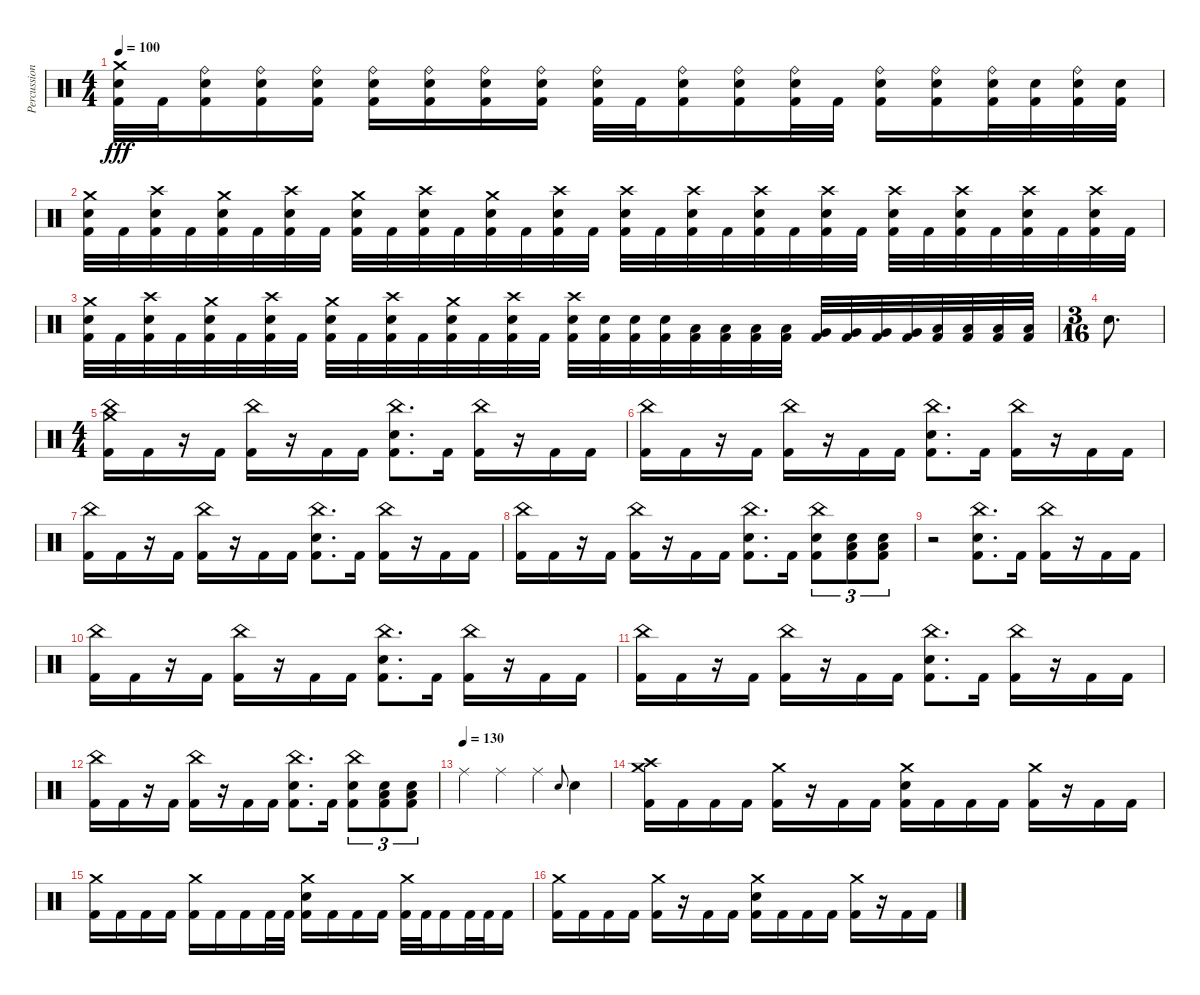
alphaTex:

\track ("Percussion" "Percussion") {instrument percussion}
\staff {score}
\articulation defaults
\ts (4 4)
\tempo 100
\clef neutral
\ks c
("Crash medium (hit)" "Electric Snare (hit)" "Kick (hit) 2").32{dy fff} "Kick (hit) 2".32 ("Ride (bell)" "Electric Snare (hit)" "Kick (hit) 2").16 ("Ride (bell)" "Electric Snare (hit)" "Kick (hit) 2").16 ("Ride (bell)" "Electric Snare (hit)" "Kick (hit) 2").16 ("Ride (bell)" "Electric Snare (hit)" "Kick (hit) 2").16 ("Ride (bell)" "Electric Snare (hit)" "Kick (hit) 2").16 ("Ride (bell)" "Electric Snare (hit)" "Kick (hit) 2").16 ("Ride (bell)" "Electric Snare (hit)" "Kick (hit) 2").16 ("Ride (bell)" "Electric Snare (hit)" "Kick (hit) 2").32 "Kick (hit) 2".32 ("Ride (bell)" "Electric Snare (hit)" "Kick (hit) 2").16 ("Ride (bell)" "Electric Snare (hit)" "Kick (hit) 2").16 ("Ride (bell)" "Electric Snare (hit)" "Kick (hit) 2").32 "Kick (hit) 2".32 ("Ride (bell)" "Electric Snare (hit)" "Kick (hit) 2").16 ("Ride (bell)" "Electric Snare (hit)" "Kick (hit) 2").16 ("Ride (bell)" "Electric Snare (hit)" "Kick (hit) 2").32 ("Electric Snare (hit)" "Kick (hit) 2").32 ("Ride (bell)" "Electric Snare (hit)" "Kick (hit) 2").32 ("Electric Snare (hit)" "Kick (hit) 2").32 |
("Crash medium (hit)" "Electric Snare (hit)" "Kick (hit) 2").32 "Kick (hit) 2".32 ("Crash high (hit)" "Electric Snare (hit)" "Kick (hit) 2").32 "Kick (hit) 2".32 ("Crash medium (hit)" "Electric Snare (hit)" "Kick (hit) 2").32 "Kick (hit) 2".32 ("Crash high (hit)" "Electric Snare (hit)" "Kick (hit) 2").32 "Kick (hit) 2".32 ("Crash medium (hit)" "Electric Snare (hit)" "Kick (hit) 2").32 "Kick (hit) 2".32 ("Crash high (hit)" "Electric Snare (hit)" "Kick (hit) 2").32 "Kick (hit) 2".32 ("Crash medium (hit)" "Electric Snare (hit)" "Kick (hit) 2").32 "Kick (hit) 2".32 ("Crash high (hit)" "Electric Snare (hit)" "Kick (hit) 2").32 "Kick (hit) 2".32 ("Crash high (hit)" "Electric Snare (hit)" "Kick (hit) 2").32 "Kick (hit) 2".32 ("Crash high (hit)" "Electric Snare (hit)" "Kick (hit) 2").32 "Kick (hit) 2".32 ("Crash high (hit)" "Electric Snare (hit)" "Kick (hit) 2").32 "Kick (hit) 2".32 ("Crash high (hit)" "Electric Snare (hit)" "Kick (hit) 2").32 "Kick (hit) 2".32 ("Crash high (hit)" "Electric Snare (hit)" "Kick (hit) 2").32 "Kick (hit) 2".32 ("Crash high (hit)" "Electric Snare (hit)" "Kick (hit) 2").32 "Kick (hit) 2".32 ("Crash high (hit)" "Electric Snare (hit)" "Kick (hit) 2").32 "Kick (hit) 2".32 ("Crash high (hit)" "Electric Snare (hit)" "Kick (hit) 2").32 "Kick (hit) 2".32 |
("Crash medium (hit)" "Electric Snare (hit)" "Kick (hit) 2").32 "Kick (hit) 2".32 ("Crash high (hit)" "Electric Snare (hit)" "Kick (hit) 2").32 "Kick (hit) 2".32 ("Crash medium (hit)" "Electric Snare (hit)" "Kick (hit) 2").32 "Kick (hit) 2".32 ("Crash high (hit)" "Electric Snare (hit)" "Kick (hit) 2").32 "Kick (hit) 2".32 ("Crash medium (hit)" "Electric Snare (hit)" "Kick (hit) 2").32 "Kick (hit) 2".32 ("Crash high (hit)" "Electric Snare (hit)" "Kick (hit) 2").32 "Kick (hit) 2".32 ("Crash medium (hit)" "Electric Snare (hit)" "Kick (hit) 2").32 "Kick (hit) 2".32 ("Crash high (hit)" "Electric Snare (hit)" "Kick (hit) 2").32 "Kick (hit) 2".32 ("Crash high (hit)" "Electric Snare (hit)" "Kick (hit) 2").32 ("Electric Snare (hit)" "Kick (hit) 2").32 ("Electric Snare (hit)" "Kick (hit) 2").32 ("Electric Snare (hit)" "Kick (hit) 2").32 ("Low Tom (hit)" "Kick (hit) 2").32 ("Low Tom (hit)" "Kick (hit) 2").32 ("Low Tom (hit)" "Kick (hit) 2").32 ("Low Tom (hit)" "Kick (hit) 2").32 ("Very Low Tom (hit)" "Kick (hit) 2").32 ("Very Low Tom (hit)" "Kick (hit) 2").32 ("Very Low Tom (hit)" "Kick (hit) 2").32 ("Very Low Tom (hit)" "Kick (hit) 2").32 ("Low Floor Tom (hit)" "Kick (hit) 2").32 ("Low Floor Tom (hit)" "Kick (hit) 2").32 ("Low Floor Tom (hit)" "Kick (hit) 2").32 ("Low Floor Tom (hit)" "Kick (hit) 2").32 |
\ts (3 16)
"Electric Snare (hit)".8{d} |
\ts (4 4)
("Crash medium (hit)" "China (hit)" "Kick (hit) 2").16 "Kick (hit) 2".16 r.16 "Kick (hit) 2".16 ("China (hit)" "Kick (hit) 2").16 r.16 "Kick (hit) 2".16 "Kick (hit) 2".16 ("China (hit)" "Electric Snare (hit)" "Kick (hit) 2").8{d} "Kick (hit) 2".16 ("China (hit)" "Kick (hit) 2").16 r.16 "Kick (hit) 2".16 "Kick (hit) 2".16 |
("China (hit)" "Kick (hit) 2").16 "Kick (hit) 2".16 r.16 "Kick (hit) 2".16 ("China (hit)" "Kick (hit) 2").16 r.16 "Kick (hit) 2".16 "Kick (hit) 2".16 ("China (hit)" "Electric Snare (hit)" "Kick (hit) 2").8{d} "Kick (hit) 2".16 ("China (hit)" "Kick (hit) 2").16 r.16 "Kick (hit) 2".16 "Kick (hit) 2".16 |
("China (hit)" "Kick (hit) 2").16 "Kick (hit) 2".16 r.16 "Kick (hit) 2".16 ("China (hit)" "Kick (hit) 2").16 r.16 "Kick (hit) 2".16 "Kick (hit) 2".16 ("China (hit)" "Electric Snare (hit)" "Kick (hit) 2").8{d} "Kick (hit) 2".16 ("China (hit)" "Kick (hit) 2").16 r.16 "Kick (hit) 2".16 "Kick (hit) 2".16 |
("China (hit)" "Kick (hit) 2").16 "Kick (hit) 2".16 r.16 "Kick (hit) 2".16 ("China (hit)" "Kick (hit) 2").16 r.16 "Kick (hit) 2".16 "Kick (hit) 2".16 ("China (hit)" "Electric Snare (hit)" "Kick (hit) 2").8{d} "Kick (hit) 2".16 ("China (hit)" "Electric Snare (hit)" "Kick (hit) 2").8{tu (3 2)} ("Low Floor Tom (hit)" "Electric Snare (hit)" "Kick (hit) 2").8{tu (3 2)} ("Low Floor Tom (hit)" "Electric Snare (hit)" "Kick (hit) 2").8{tu (3 2)} |
r.2 ("China (hit)" "Electric Snare (hit)" "Kick (hit) 2").8{d} "Kick (hit) 2".16 ("China (hit)" "Kick (hit) 2").16 r.16 "Kick (hit) 2".16 "Kick (hit) 2".16 |
("China (hit)" "Kick (hit) 2").16 "Kick (hit) 2".16 r.16 "Kick (hit) 2".16 ("China (hit)" "Kick (hit) 2").16 r.16 "Kick (hit) 2".16 "Kick (hit) 2".16 ("China (hit)" "Electric Snare (hit)" "Kick (hit) 2").8{d} "Kick (hit) 2".16 ("China (hit)" "Kick (hit) 2").16 r.16 "Kick (hit) 2".16 "Kick (hit) 2".16 |
("China (hit)" "Kick (hit) 2").16 "Kick (hit) 2".16 r.16 "Kick (hit) 2".16 ("China (hit)" "Kick (hit) 2").16 r.16 "Kick (hit) 2".16 "Kick (hit) 2".16 ("China (hit)" "Electric Snare (hit)" "Kick (hit) 2").8{d} "Kick (hit) 2".16 ("China (hit)" "Kick (hit) 2").16 r.16 "Kick (hit) 2".16 "Kick (hit) 2".16 |
("China (hit)" "Kick (hit) 2").16 "Kick (hit) 2".16 r.16 "Kick (hit) 2".16 ("China (hit)" "Kick (hit) 2").16 r.16 "Kick (hit) 2".16 "Kick (hit) 2".16 ("China (hit)" "Electric Snare (hit)" "Kick (hit) 2").8{d} "Kick (hit) 2".16 ("China (hit)" "Electric Snare (hit)" "Kick (hit) 2").8{tu (3 2)} ("Low Floor Tom (hit)" "Electric Snare (hit)" "Kick (hit) 2").8{tu (3 2)} ("Low Floor Tom (hit)" "Electric Snare (hit)" "Kick (hit) 2").8{tu (3 2)} |
\tempo (130)
"Ride (middle)".4 "Ride (middle)".4 "Ride (middle)".4 "Electric Snare (hit)".8{gr onbeat} "Electric Snare (hit)".4 |
("Crash high (hit)" "Crash medium (hit)" "Kick (hit) 2").16 "Kick (hit) 2".16 "Kick (hit) 2".16 "Kick (hit) 2".16 ("Crash medium (hit)" "Kick (hit) 2").16 r.16 "Kick (hit) 2".16 "Kick (hit) 2".16 ("Crash medium (hit)" "Electric Snare (hit)" "Kick (hit) 2").16 "Kick (hit) 2".16 "Kick (hit) 2".16 "Kick (hit) 2".16 ("Crash medium (hit)" "Kick (hit) 2").16 r.16 "Kick (hit) 2".16 "Kick (hit) 2".16 |
("Crash medium (hit)" "Kick (hit) 2").16 "Kick (hit) 2".16 "Kick (hit) 2".16 "Kick (hit) 2".16 ("Crash medium (hit)" "Kick (hit) 2").16 "Kick (hit) 2".16 "Kick (hit) 2".16 "Kick (hit) 2".32 "Kick (hit) 2".32 ("Crash medium (hit)" "Electric Snare (hit)" "Kick (hit) 2").16 "Kick (hit) 2".16 "Kick (hit) 2".16 "Kick (hit) 2".16 ("Crash medium (hit)" "Kick (hit) 2").32 "Kick (hit) 2".32 "Kick (hit) 2".16 "Kick (hit) 2".32 "Kick (hit) 2".32 "Kick (hit) 2".16 |
("Crash medium (hit)" "Kick (hit) 2").16 "Kick (hit) 2".16 "Kick (hit) 2".16 "Kick (hit) 2".16 ("Crash medium (hit)" "Kick (hit) 2").16 r.16 "Kick (hit) 2".16 "Kick (hit) 2".16 ("Crash medium (hit)" "Electric Snare (hit)" "Kick (hit) 2").16 "Kick (hit) 2".16 "Kick (hit) 2".16 "Kick (hit) 2".16 ("Crash medium (hit)" "Kick (hit) 2").16 r.16 "Kick (hit) 2".16 "Kick (hit) 2".16
